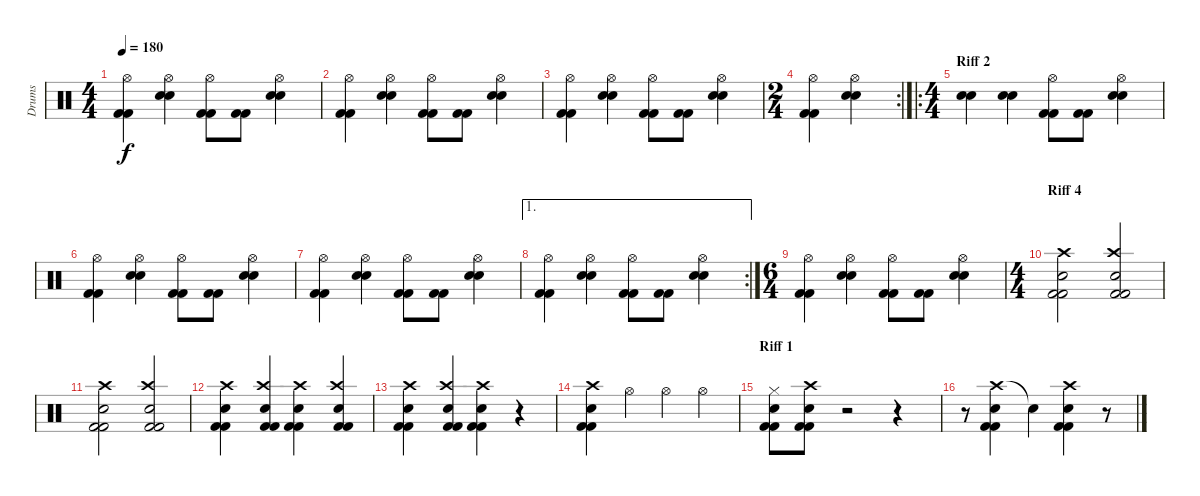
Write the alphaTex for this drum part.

\track ("Drums" "Drums") {instrument percussion}
\staff {score}
\articulation defaults
\ts (4 4)
\tempo 180
\clef neutral
\ks c
("Hi-Hat (open)" "Kick (hit) 2" "Kick (hit) 2").4{dy f} ("Hi-Hat (open)" "Snare (hit) 2" "Snare (hit) 2").4 ("Hi-Hat (open)" "Kick (hit) 2" "Kick (hit) 2").8 ("Kick (hit) 2" "Kick (hit) 2").8 ("Hi-Hat (open)" "Snare (hit) 2" "Snare (hit) 2").4 |
("Hi-Hat (open)" "Kick (hit) 2" "Kick (hit) 2").4 ("Hi-Hat (open)" "Snare (hit) 2" "Snare (hit) 2").4 ("Hi-Hat (open)" "Kick (hit) 2" "Kick (hit) 2").8 ("Kick (hit) 2" "Kick (hit) 2").8 ("Hi-Hat (open)" "Snare (hit) 2" "Snare (hit) 2").4 |
("Hi-Hat (open)" "Kick (hit) 2" "Kick (hit) 2").4 ("Hi-Hat (open)" "Snare (hit) 2" "Snare (hit) 2").4 ("Hi-Hat (open)" "Kick (hit) 2" "Kick (hit) 2").8 ("Kick (hit) 2" "Kick (hit) 2").8 ("Hi-Hat (open)" "Snare (hit) 2" "Snare (hit) 2").4 |
\rc 2
\ts (2 4)
("Hi-Hat (open)" "Kick (hit) 2" "Kick (hit) 2").4 ("Hi-Hat (open)" "Snare (hit) 2" "Snare (hit) 2").4 |
\ro
\ts (4 4)
\section ("" "Riff 2")
("Snare (hit) 2" "Snare (hit) 2").4 ("Snare (hit) 2" "Snare (hit) 2").4 ("Hi-Hat (open)" "Kick (hit) 2" "Kick (hit) 2").8 ("Kick (hit) 2" "Kick (hit) 2").8 ("Hi-Hat (open)" "Snare (hit) 2" "Snare (hit) 2").4 |
("Hi-Hat (open)" "Kick (hit) 2" "Kick (hit) 2").4 ("Hi-Hat (open)" "Snare (hit) 2" "Snare (hit) 2").4 ("Hi-Hat (open)" "Kick (hit) 2" "Kick (hit) 2").8 ("Kick (hit) 2" "Kick (hit) 2").8 ("Hi-Hat (open)" "Snare (hit) 2" "Snare (hit) 2").4 |
("Hi-Hat (open)" "Kick (hit) 2" "Kick (hit) 2").4 ("Hi-Hat (open)" "Snare (hit) 2" "Snare (hit) 2").4 ("Hi-Hat (open)" "Kick (hit) 2" "Kick (hit) 2").8 ("Kick (hit) 2" "Kick (hit) 2").8 ("Hi-Hat (open)" "Snare (hit) 2" "Snare (hit) 2").4 |
\ae 1
\rc 2
("Hi-Hat (open)" "Kick (hit) 2" "Kick (hit) 2").4 ("Hi-Hat (open)" "Snare (hit) 2" "Snare (hit) 2").4 ("Hi-Hat (open)" "Kick (hit) 2" "Kick (hit) 2").8 ("Kick (hit) 2" "Kick (hit) 2").8 ("Hi-Hat (open)" "Snare (hit) 2" "Snare (hit) 2").4 |
\ts (6 4)
("Hi-Hat (open)" "Kick (hit) 2" "Kick (hit) 2").4 ("Hi-Hat (open)" "Snare (hit) 2" "Snare (hit) 2").4 ("Hi-Hat (open)" "Kick (hit) 2" "Kick (hit) 2").8 ("Kick (hit) 2" "Kick (hit) 2").8 ("Hi-Hat (open)" "Snare (hit) 2" "Snare (hit) 2").4 |
\ts (4 4)
\section ("" "Riff 4")
("Crash high (hit)" "Snare (hit) 2" "Kick (hit) 2" "Kick (hit) 2").2 ("Crash high (hit)" "Electric Snare (hit)" "Kick (hit) 2" "Kick (hit) 2").2 |
("Crash high (hit)" "Snare (hit) 2" "Kick (hit) 2" "Kick (hit) 2").2 ("Crash high (hit)" "Electric Snare (hit)" "Kick (hit) 2" "Kick (hit) 2").2 |
("Crash high (hit)" "Snare (hit) 2" "Kick (hit) 2" "Kick (hit) 2").4 ("Crash high (hit)" "Electric Snare (hit)" "Kick (hit) 2" "Kick (hit) 2").4 ("Crash high (hit)" "Snare (hit) 2" "Kick (hit) 2" "Kick (hit) 2").4 ("Crash high (hit)" "Electric Snare (hit)" "Kick (hit) 2" "Kick (hit) 2").4 |
("Crash high (hit)" "Snare (hit) 2" "Kick (hit) 2" "Kick (hit) 2").4 ("Crash high (hit)" "Electric Snare (hit)" "Kick (hit) 2" "Kick (hit) 2").4 ("Crash high (hit)" "Snare (hit) 2" "Kick (hit) 2" "Kick (hit) 2").4 r.4 |
("Crash high (hit)" "Snare (hit) 2" "Kick (hit) 2" "Kick (hit) 2").4 "Hi-Hat (open)".4 "Hi-Hat (open)".4 "Hi-Hat (open)".4 |
\section ("" "Riff 1")
("Hi-Hat (closed)" "Snare (hit) 2" "Kick (hit) 2" "Kick (hit) 2").8 ("Crash high (hit)" "Snare (hit) 2" "Kick (hit) 2" "Kick (hit) 2").8 r.2 r.4 |
r.8 ("Crash high (hit)" "Snare (hit) 2" "Kick (hit) 2" "Kick (hit) 2").4 "Snare (hit)"{t}.4 ("Crash high (hit)" "Snare (hit) 2" "Kick (hit) 2" "Kick (hit) 2").4 r.8
